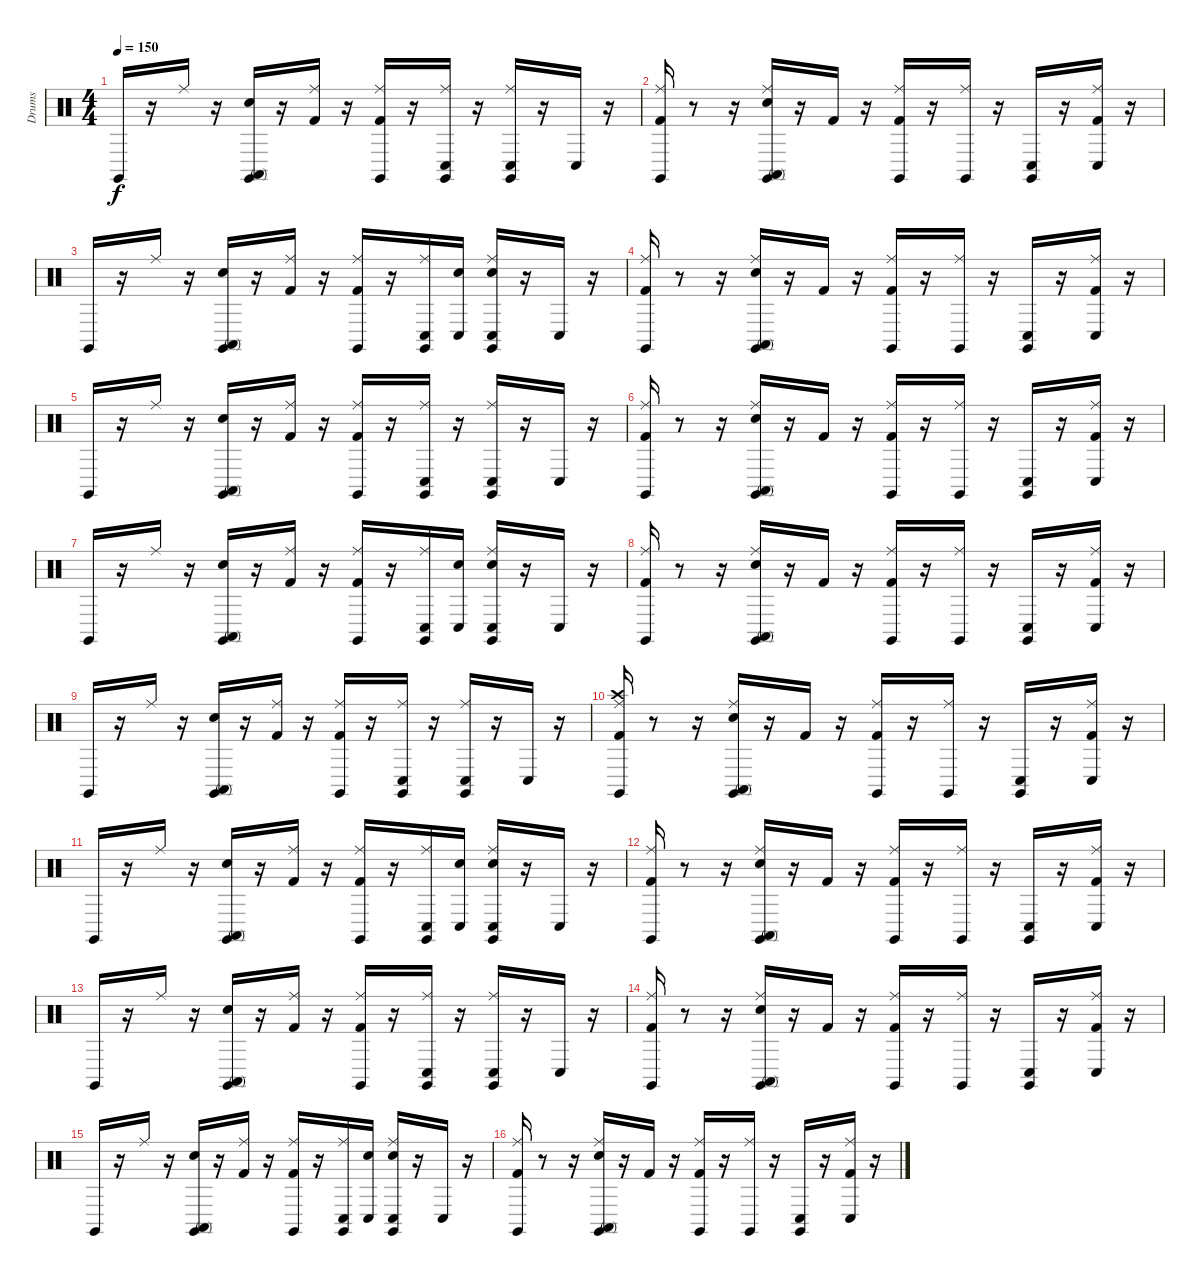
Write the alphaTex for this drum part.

\track ("Drums" "Drums") {instrument percussion}
\staff {score}
\articulation defaults
\ts (4 4)
\tempo 150
\clef neutral
\ks c "Claves (hit)".16{dy f}
r.16 "Ride (middle)".16 r.16 ("Snare (hit) 2" "Conga high (mute)" "Claves (hit)").16 r.16 ("Kick (hit) 2" "Ride (middle)").16 r.16 ("Kick (hit) 2" "Ride (middle)" "Claves (hit)").16 r.16 ("Ride (middle)" "Conga low (hit)" "Claves (hit)").16 r.16 ("Ride (middle)" "Conga low (hit)" "Claves (hit)").16 r.16 "Conga low (hit)".16 r.16 |
("Kick (hit) 2" "Ride (middle)" "Claves (hit)").16 r.8 r.16 ("Snare (hit) 2" "Ride (middle)" "Conga high (mute)" "Claves (hit)").16 r.16 "Kick (hit) 2".16 r.16 ("Kick (hit) 2" "Ride (middle)" "Claves (hit)").16 r.16 ("Ride (middle)" "Claves (hit)").16 r.16 ("Conga low (hit)" "Claves (hit)").16 r.16 ("Kick (hit) 2" "Ride (middle)" "Conga low (hit)").16 r.16 |
"Claves (hit)".16 r.16 "Ride (middle)".16 r.16 ("Snare (hit) 2" "Conga high (mute)" "Claves (hit)").16 r.16 ("Kick (hit) 2" "Ride (middle)").16 r.16 ("Kick (hit) 2" "Ride (middle)" "Claves (hit)").16 r.16 ("Ride (middle)" "Conga low (hit)" "Claves (hit)").16 ("Snare (hit)" "Conga low (hit)").16 ("Snare (hit)" "Ride (middle)" "Conga low (hit)" "Claves (hit)").16 r.16 "Conga low (hit)".16 r.16 |
("Kick (hit) 2" "Ride (middle)" "Claves (hit)").16 r.8 r.16 ("Snare (hit) 2" "Ride (middle)" "Conga high (mute)" "Claves (hit)").16 r.16 "Kick (hit) 2".16 r.16 ("Kick (hit) 2" "Ride (middle)" "Claves (hit)").16 r.16 ("Ride (middle)" "Claves (hit)").16 r.16 ("Conga low (hit)" "Claves (hit)").16 r.16 ("Kick (hit) 2" "Ride (middle)" "Conga low (hit)").16 r.16 |
"Claves (hit)".16 r.16 "Ride (middle)".16 r.16 ("Snare (hit) 2" "Conga high (mute)" "Claves (hit)").16 r.16 ("Kick (hit) 2" "Ride (middle)").16 r.16 ("Kick (hit) 2" "Ride (middle)" "Claves (hit)").16 r.16 ("Ride (middle)" "Conga low (hit)" "Claves (hit)").16 r.16 ("Ride (middle)" "Conga low (hit)" "Claves (hit)").16 r.16 "Conga low (hit)".16 r.16 |
("Kick (hit) 2" "Ride (middle)" "Claves (hit)").16 r.8 r.16 ("Snare (hit) 2" "Ride (middle)" "Conga high (mute)" "Claves (hit)").16 r.16 "Kick (hit) 2".16 r.16 ("Kick (hit) 2" "Ride (middle)" "Claves (hit)").16 r.16 ("Ride (middle)" "Claves (hit)").16 r.16 ("Conga low (hit)" "Claves (hit)").16 r.16 ("Kick (hit) 2" "Ride (middle)" "Conga low (hit)").16 r.16 |
"Claves (hit)".16 r.16 "Ride (middle)".16 r.16 ("Snare (hit) 2" "Conga high (mute)" "Claves (hit)").16 r.16 ("Kick (hit) 2" "Ride (middle)").16 r.16 ("Kick (hit) 2" "Ride (middle)" "Claves (hit)").16 r.16 ("Ride (middle)" "Conga low (hit)" "Claves (hit)").16 ("Snare (hit)" "Conga low (hit)").16 ("Snare (hit)" "Ride (middle)" "Conga low (hit)" "Claves (hit)").16 r.16 "Conga low (hit)".16 r.16 |
("Kick (hit) 2" "Ride (middle)" "Claves (hit)").16 r.8 r.16 ("Snare (hit) 2" "Ride (middle)" "Conga high (mute)" "Claves (hit)").16 r.16 "Kick (hit) 2".16 r.16 ("Kick (hit) 2" "Ride (middle)" "Claves (hit)").16 r.16 ("Ride (middle)" "Claves (hit)").16 r.16 ("Conga low (hit)" "Claves (hit)").16 r.16 ("Kick (hit) 2" "Ride (middle)" "Conga low (hit)").16 r.16 |
"Claves (hit)".16 r.16 "Ride (middle)".16 r.16 ("Snare (hit) 2" "Conga high (mute)" "Claves (hit)").16 r.16 ("Kick (hit) 2" "Ride (middle)").16 r.16 ("Kick (hit) 2" "Ride (middle)" "Claves (hit)").16 r.16 ("Ride (middle)" "Conga low (hit)" "Claves (hit)").16 r.16 ("Ride (middle)" "Conga low (hit)" "Claves (hit)").16 r.16 "Conga low (hit)".16 r.16 |
("Kick (hit) 2" "Crash high (hit)" "Ride (middle)" "Claves (hit)").16 r.8 r.16 ("Snare (hit) 2" "Ride (middle)" "Conga high (mute)" "Claves (hit)").16 r.16 "Kick (hit) 2".16 r.16 ("Kick (hit) 2" "Ride (middle)" "Claves (hit)").16 r.16 ("Ride (middle)" "Claves (hit)").16 r.16 ("Conga low (hit)" "Claves (hit)").16 r.16 ("Kick (hit) 2" "Ride (middle)" "Conga low (hit)").16 r.16 |
"Claves (hit)".16 r.16 "Ride (middle)".16 r.16 ("Snare (hit) 2" "Conga high (mute)" "Claves (hit)").16 r.16 ("Kick (hit) 2" "Ride (middle)").16 r.16 ("Kick (hit) 2" "Ride (middle)" "Claves (hit)").16 r.16 ("Ride (middle)" "Conga low (hit)" "Claves (hit)").16 ("Snare (hit)" "Conga low (hit)").16 ("Snare (hit)" "Ride (middle)" "Conga low (hit)" "Claves (hit)").16 r.16 "Conga low (hit)".16 r.16 |
("Kick (hit) 2" "Ride (middle)" "Claves (hit)").16 r.8 r.16 ("Snare (hit) 2" "Ride (middle)" "Conga high (mute)" "Claves (hit)").16 r.16 "Kick (hit) 2".16 r.16 ("Kick (hit) 2" "Ride (middle)" "Claves (hit)").16 r.16 ("Ride (middle)" "Claves (hit)").16 r.16 ("Conga low (hit)" "Claves (hit)").16 r.16 ("Kick (hit) 2" "Ride (middle)" "Conga low (hit)").16 r.16 |
"Claves (hit)".16 r.16 "Ride (middle)".16 r.16 ("Snare (hit) 2" "Conga high (mute)" "Claves (hit)").16 r.16 ("Kick (hit) 2" "Ride (middle)").16 r.16 ("Kick (hit) 2" "Ride (middle)" "Claves (hit)").16 r.16 ("Ride (middle)" "Conga low (hit)" "Claves (hit)").16 r.16 ("Ride (middle)" "Conga low (hit)" "Claves (hit)").16 r.16 "Conga low (hit)".16 r.16 |
("Kick (hit) 2" "Ride (middle)" "Claves (hit)").16 r.8 r.16 ("Snare (hit) 2" "Ride (middle)" "Conga high (mute)" "Claves (hit)").16 r.16 "Kick (hit) 2".16 r.16 ("Kick (hit) 2" "Ride (middle)" "Claves (hit)").16 r.16 ("Ride (middle)" "Claves (hit)").16 r.16 ("Conga low (hit)" "Claves (hit)").16 r.16 ("Kick (hit) 2" "Ride (middle)" "Conga low (hit)").16 r.16 |
"Claves (hit)".16 r.16 "Ride (middle)".16 r.16 ("Snare (hit) 2" "Conga high (mute)" "Claves (hit)").16 r.16 ("Kick (hit) 2" "Ride (middle)").16 r.16 ("Kick (hit) 2" "Ride (middle)" "Claves (hit)").16 r.16 ("Ride (middle)" "Conga low (hit)" "Claves (hit)").16 ("Snare (hit)" "Conga low (hit)").16 ("Snare (hit)" "Ride (middle)" "Conga low (hit)" "Claves (hit)").16 r.16 "Conga low (hit)".16 r.16 |
("Kick (hit) 2" "Ride (middle)" "Claves (hit)").16 r.8 r.16 ("Snare (hit) 2" "Ride (middle)" "Conga high (mute)" "Claves (hit)").16 r.16 "Kick (hit) 2".16 r.16 ("Kick (hit) 2" "Ride (middle)" "Claves (hit)").16 r.16 ("Ride (middle)" "Claves (hit)").16 r.16 ("Conga low (hit)" "Claves (hit)").16 r.16 ("Kick (hit) 2" "Ride (middle)" "Conga low (hit)").16 r.16
